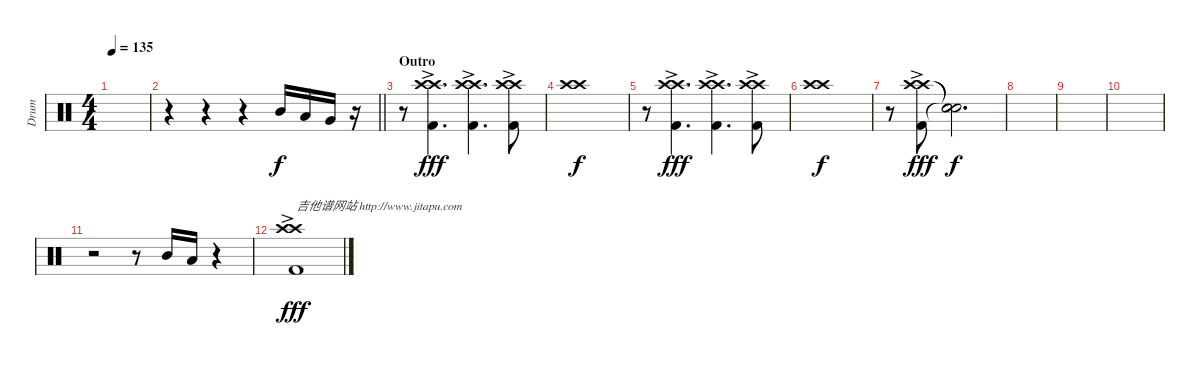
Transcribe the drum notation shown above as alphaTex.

\track ("Drum" "Drum") {instrument percussion}
\staff {score}
\articulation defaults
\ts (4 4)
\tempo 135
\clef neutral
\ks c
|
\barLineRight lightlight
r.4 r.4 r.4 "Mid Tom (hit)".16{dy f} "Low Tom (hit)".16 "Very Low Tom (hit)".16 r.16 |
\section ("" "Outro")
r.8 ("Crash high (hit)"{ac} "Crash high (hit)"{ac} "Kick (hit) 2"{ac}).4{d dy fff} ("Crash high (hit)"{ac} "Crash high (hit)"{ac} "Kick (hit) 2"{ac}).4{d} ("Crash high (hit)"{ac} "Crash high (hit)"{ac} "Kick (hit) 2"{ac}).8 |
("Crash high (hit)"{tr (49 64)} "Crash high (hit)"{tr (49 64)}).1{dy f} |
r.8 ("Crash high (hit)"{ac} "Crash high (hit)"{ac} "Kick (hit) 2"{ac}).4{d dy fff} ("Crash high (hit)"{ac} "Crash high (hit)"{ac} "Kick (hit) 2"{ac}).4{d} ("Crash high (hit)"{ac} "Crash high (hit)"{ac} "Kick (hit) 2"{ac}).8 |
("Crash high (hit)"{tr (49 64)} "Crash high (hit)"{tr (49 64)}).1{dy f} |
r.8 ("Crash high (hit)"{ac} "Crash high (hit)"{ac} "Kick (hit) 2").8{dy fff} ("Snare (hit)"{t} "Snare (hit)"{t} "Snare (hit)"{t}).2{d dy f} |
|
|
|
r.2 r.8 "Mid Tom (hit)".16 "Low Tom (hit)".16 r.4 |
("Crash high (hit)"{ac} "Crash high (hit)"{ac} "Kick (hit) 2"{ac}).1{txt "吉他谱网站 http://www.jitapu.com" dy fff}
